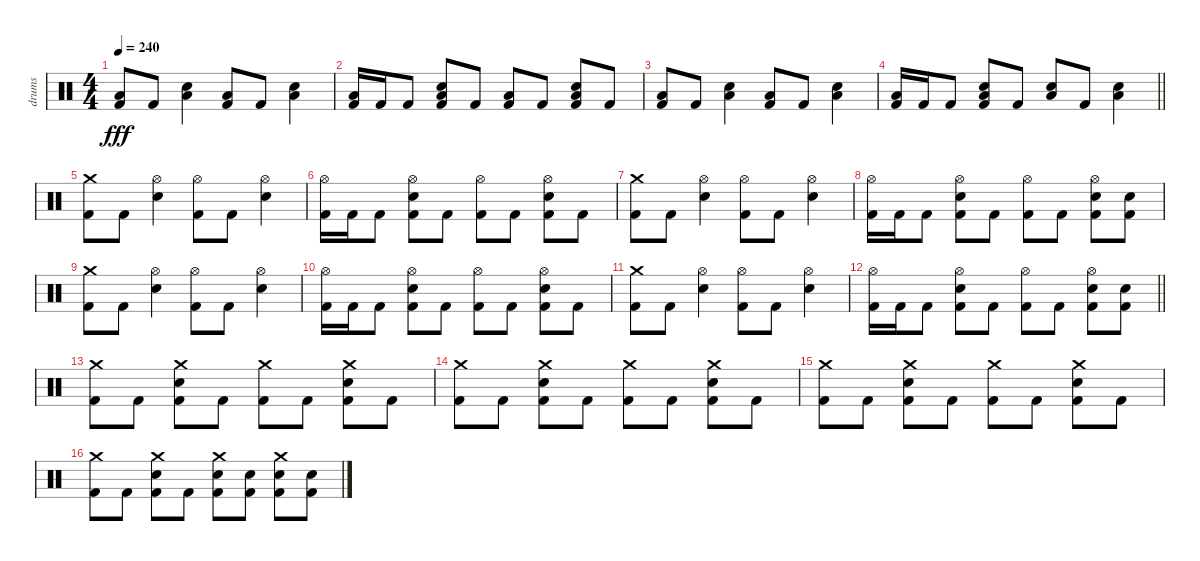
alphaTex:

\track ("drums" "drums") {instrument percussion}
\staff {score}
\articulation defaults
\ts (4 4)
\tempo 240
\clef neutral
\ks c
("Low Floor Tom (hit)" "Kick (hit) 2").8{dy fff} "Kick (hit) 2".8 ("Low Floor Tom (hit)" "Electric Snare (hit)").4 ("Low Floor Tom (hit)" "Kick (hit) 2").8 "Kick (hit) 2".8 ("Low Floor Tom (hit)" "Electric Snare (hit)").4 |
("Low Floor Tom (hit)" "Kick (hit) 2").16 "Kick (hit) 2".16 "Kick (hit) 2".8 ("Low Floor Tom (hit)" "Electric Snare (hit)" "Kick (hit) 2").8 "Kick (hit) 2".8 ("Low Floor Tom (hit)" "Kick (hit) 2").8 "Kick (hit) 2".8 ("Low Floor Tom (hit)" "Electric Snare (hit)" "Kick (hit) 2").8 "Kick (hit) 2".8 |
("Low Floor Tom (hit)" "Kick (hit) 2").8 "Kick (hit) 2".8 ("Low Floor Tom (hit)" "Electric Snare (hit)").4 ("Low Floor Tom (hit)" "Kick (hit) 2").8 "Kick (hit) 2".8 ("Low Floor Tom (hit)" "Electric Snare (hit)").4 |
\barLineRight lightlight
("Low Floor Tom (hit)" "Kick (hit) 2").16 "Kick (hit) 2".16 "Kick (hit) 2".8 ("Low Floor Tom (hit)" "Electric Snare (hit)" "Kick (hit) 2").8 "Kick (hit) 2".8 ("Low Floor Tom (hit)" "Electric Snare (hit)").8 "Kick (hit) 2".8 ("Low Floor Tom (hit)" "Electric Snare (hit)").4 |
\section ("" "")
("Crash medium (hit)" "Kick (hit) 2").8 "Kick (hit) 2".8 ("Hi-Hat (open)" "Electric Snare (hit)").4 ("Hi-Hat (open)" "Kick (hit) 2").8 "Kick (hit) 2".8 ("Hi-Hat (open)" "Electric Snare (hit)").4 |
("Hi-Hat (open)" "Kick (hit) 2").16 "Kick (hit) 2".16 "Kick (hit) 2".8 ("Hi-Hat (open)" "Electric Snare (hit)" "Kick (hit) 2").8 "Kick (hit) 2".8 ("Hi-Hat (open)" "Kick (hit) 2").8 "Kick (hit) 2".8 ("Hi-Hat (open)" "Electric Snare (hit)" "Kick (hit) 2").8 "Kick (hit) 2".8 |
("Crash medium (hit)" "Kick (hit) 2").8 "Kick (hit) 2".8 ("Hi-Hat (open)" "Electric Snare (hit)").4 ("Hi-Hat (open)" "Kick (hit) 2").8 "Kick (hit) 2".8 ("Hi-Hat (open)" "Electric Snare (hit)").4 |
("Hi-Hat (open)" "Kick (hit) 2").16 "Kick (hit) 2".16 "Kick (hit) 2".8 ("Hi-Hat (open)" "Electric Snare (hit)" "Kick (hit) 2").8 "Kick (hit) 2".8 ("Hi-Hat (open)" "Kick (hit) 2").8 "Kick (hit) 2".8 ("Hi-Hat (open)" "Electric Snare (hit)" "Kick (hit) 2").8 ("Electric Snare (hit)" "Kick (hit) 2").8 |
("Crash medium (hit)" "Kick (hit) 2").8 "Kick (hit) 2".8 ("Hi-Hat (open)" "Electric Snare (hit)").4 ("Hi-Hat (open)" "Kick (hit) 2").8 "Kick (hit) 2".8 ("Hi-Hat (open)" "Electric Snare (hit)").4 |
("Hi-Hat (open)" "Kick (hit) 2").16 "Kick (hit) 2".16 "Kick (hit) 2".8 ("Hi-Hat (open)" "Electric Snare (hit)" "Kick (hit) 2").8 "Kick (hit) 2".8 ("Hi-Hat (open)" "Kick (hit) 2").8 "Kick (hit) 2".8 ("Hi-Hat (open)" "Electric Snare (hit)" "Kick (hit) 2").8 "Kick (hit) 2".8 |
("Crash medium (hit)" "Kick (hit) 2").8 "Kick (hit) 2".8 ("Hi-Hat (open)" "Electric Snare (hit)").4 ("Hi-Hat (open)" "Kick (hit) 2").8 "Kick (hit) 2".8 ("Hi-Hat (open)" "Electric Snare (hit)").4 |
\barLineRight lightlight
("Hi-Hat (open)" "Kick (hit) 2").16 "Kick (hit) 2".16 "Kick (hit) 2".8 ("Hi-Hat (open)" "Electric Snare (hit)" "Kick (hit) 2").8 "Kick (hit) 2".8 ("Hi-Hat (open)" "Kick (hit) 2").8 "Kick (hit) 2".8 ("Hi-Hat (open)" "Electric Snare (hit)" "Kick (hit) 2").8 ("Electric Snare (hit)" "Kick (hit) 2").8 |
\section ("" "")
("Crash medium (hit)" "Kick (hit) 2").8 "Kick (hit) 2".8 ("Crash medium (hit)" "Electric Snare (hit)" "Kick (hit) 2").8 "Kick (hit) 2".8 ("Crash medium (hit)" "Kick (hit) 2").8 "Kick (hit) 2".8 ("Crash medium (hit)" "Electric Snare (hit)" "Kick (hit) 2").8 "Kick (hit) 2".8 |
("Crash medium (hit)" "Kick (hit) 2").8 "Kick (hit) 2".8 ("Crash medium (hit)" "Electric Snare (hit)" "Kick (hit) 2").8 "Kick (hit) 2".8 ("Crash medium (hit)" "Kick (hit) 2").8 "Kick (hit) 2".8 ("Crash medium (hit)" "Electric Snare (hit)" "Kick (hit) 2").8 "Kick (hit) 2".8 |
("Crash medium (hit)" "Kick (hit) 2").8 "Kick (hit) 2".8 ("Crash medium (hit)" "Electric Snare (hit)" "Kick (hit) 2").8 "Kick (hit) 2".8 ("Crash medium (hit)" "Kick (hit) 2").8 "Kick (hit) 2".8 ("Crash medium (hit)" "Electric Snare (hit)" "Kick (hit) 2").8 "Kick (hit) 2".8 |
("Crash medium (hit)" "Kick (hit) 2").8 "Kick (hit) 2".8 ("Crash medium (hit)" "Electric Snare (hit)" "Kick (hit) 2").8 "Kick (hit) 2".8 ("Crash medium (hit)" "Electric Snare (hit)" "Kick (hit) 2").8 ("Electric Snare (hit)" "Kick (hit) 2").8 ("Crash medium (hit)" "Electric Snare (hit)" "Kick (hit) 2").8 ("Electric Snare (hit)" "Kick (hit) 2").8
